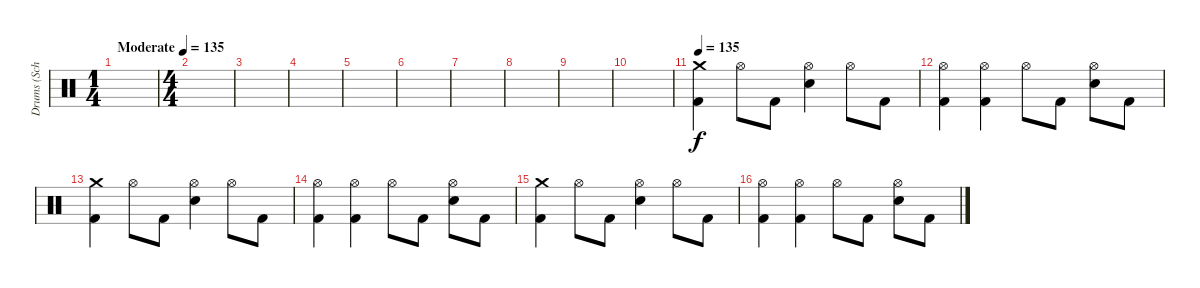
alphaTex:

\track ("Drums (Schill)" "Drums (Sch") {instrument percussion}
\staff {score}
\articulation defaults
\ts (1 4)
\tempo (135 "Moderate")
\tempo 60
\tempo (135 "Moderate")
\clef neutral
\ks c
|
\ts (4 4)
|
|
|
|
|
|
|
|
|
\tempo 135
("Crash medium (hit)" "Kick (hit) 2").4 "Hi-Hat (open)".8 "Kick (hit) 2".8 ("Hi-Hat (open)" "Electric Snare (hit)").4 "Hi-Hat (open)".8 "Kick (hit) 2".8 |
("Hi-Hat (open)" "Kick (hit) 2").4 ("Hi-Hat (open)" "Kick (hit) 2").4 "Hi-Hat (open)".8 "Kick (hit) 2".8 ("Hi-Hat (open)" "Electric Snare (hit)").8 "Kick (hit) 2".8 |
("Crash medium (hit)" "Kick (hit) 2").4 "Hi-Hat (open)".8 "Kick (hit) 2".8 ("Hi-Hat (open)" "Electric Snare (hit)").4 "Hi-Hat (open)".8 "Kick (hit) 2".8 |
("Hi-Hat (open)" "Kick (hit) 2").4 ("Hi-Hat (open)" "Kick (hit) 2").4 "Hi-Hat (open)".8 "Kick (hit) 2".8 ("Hi-Hat (open)" "Electric Snare (hit)").8 "Kick (hit) 2".8 |
("Crash medium (hit)" "Kick (hit) 2").4 "Hi-Hat (open)".8 "Kick (hit) 2".8 ("Hi-Hat (open)" "Electric Snare (hit)").4 "Hi-Hat (open)".8 "Kick (hit) 2".8 |
("Hi-Hat (open)" "Kick (hit) 2").4 ("Hi-Hat (open)" "Kick (hit) 2").4 "Hi-Hat (open)".8 "Kick (hit) 2".8 ("Hi-Hat (open)" "Electric Snare (hit)").8 "Kick (hit) 2".8
